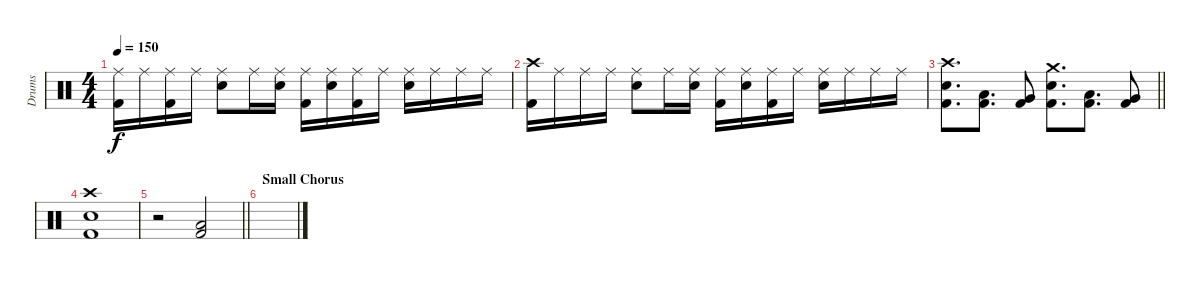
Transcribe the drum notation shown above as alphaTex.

\track ("Drums" "Drums") {instrument percussion}
\staff {score}
\articulation defaults
\ts (4 4)
\tempo 150
\clef neutral
\ks c
("Ride (middle)" "Kick (hit) 2").16{dy f} "Ride (middle)".16 ("Ride (middle)" "Kick (hit) 2").16 "Ride (middle)".16 ("Ride (middle)" "Snare (hit) 2").8 "Ride (middle)".16 ("Ride (middle)" "Snare (hit) 2").16 ("Ride (middle)" "Kick (hit) 2").16 ("Ride (middle)" "Snare (hit) 2").16 ("Ride (middle)" "Kick (hit) 2").16 "Ride (middle)".16 ("Ride (middle)" "Snare (hit) 2").16 "Ride (middle)".16 "Ride (middle)".16 "Ride (middle)".16 |
("Crash high (hit)" "Kick (hit) 2").16 "Ride (middle)".16 "Ride (middle)".16 "Ride (middle)".16 ("Ride (middle)" "Snare (hit) 2").8 "Ride (middle)".16 ("Ride (middle)" "Snare (hit) 2").16 ("Ride (middle)" "Kick (hit) 2").16 ("Ride (middle)" "Snare (hit) 2").16 ("Ride (middle)" "Kick (hit) 2").16 "Ride (middle)".16 ("Ride (middle)" "Snare (hit) 2").16 "Ride (middle)".16 "Ride (middle)".16 "Ride (middle)".16 |
\barLineRight lightlight
("Crash high (hit)" "Snare (hit) 2" "Kick (hit) 2").8{d} ("Low Tom (hit)" "Kick (hit) 2").8{d} ("Very Low Tom (hit)" "Kick (hit) 2").8 ("Crash medium (hit)" "Snare (hit) 2" "Kick (hit) 2").8{d} ("Low Tom (hit)" "Kick (hit) 2").8{d} ("Very Low Tom (hit)" "Kick (hit) 2").8 |
("Crash high (hit)" "Snare (hit) 2" "Kick (hit) 2").1 |
\barLineRight lightlight
r.2 ("Low Tom (hit)" "Kick (hit) 2").2 |
\section ("" "Small Chorus")
